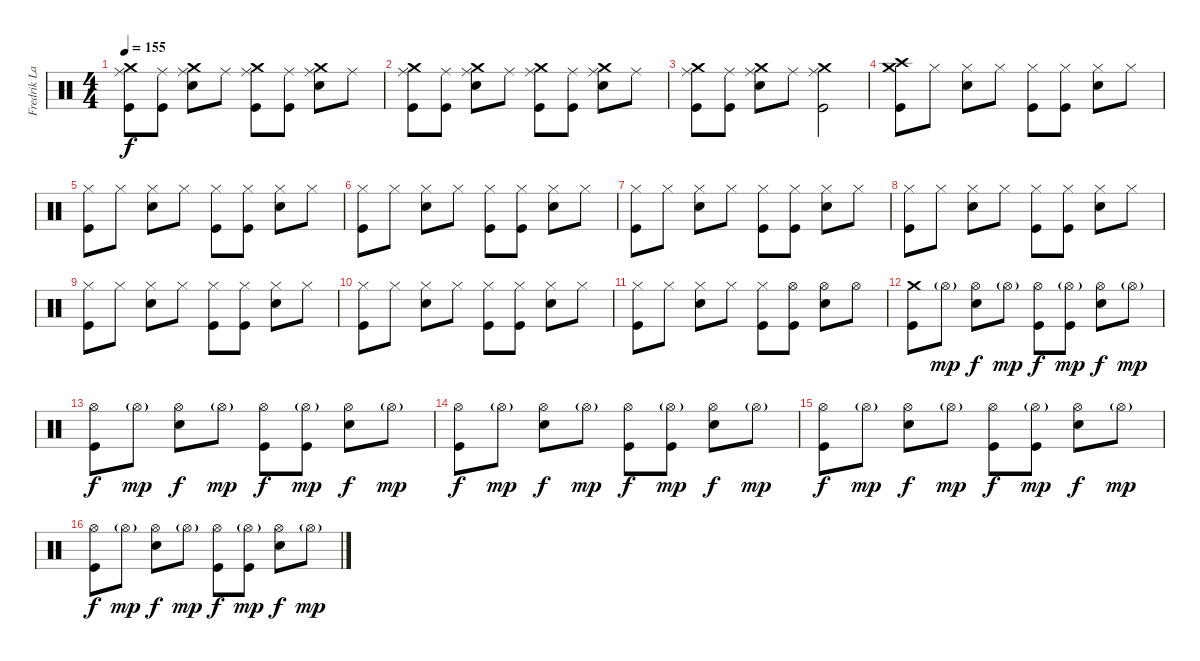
\track ("Fredrik Larzon Drums" "Fredrik La") {instrument percussion}
\staff {score}
\articulation defaults
\ts (4 4)
\tempo 155
\clef neutral
\ks c
("Ride (middle)" "Crash medium (hit)" "Kick (hit)").8{dy f} ("Ride (middle)" "Kick (hit)").8 ("Ride (middle)" "Crash medium (hit)" "Electric Snare (hit)").8 "Ride (middle)".8 ("Ride (middle)" "Crash medium (hit)" "Kick (hit)").8 ("Ride (middle)" "Kick (hit)").8 ("Ride (middle)" "Crash medium (hit)" "Electric Snare (hit)").8 "Ride (middle)".8 |
("Ride (middle)" "Crash medium (hit)" "Kick (hit)").8 ("Ride (middle)" "Kick (hit)").8 ("Ride (middle)" "Crash medium (hit)" "Electric Snare (hit)").8 "Ride (middle)".8 ("Ride (middle)" "Crash medium (hit)" "Kick (hit)").8 ("Ride (middle)" "Kick (hit)").8 ("Ride (middle)" "Crash medium (hit)" "Electric Snare (hit)").8 "Ride (middle)".8 |
("Ride (middle)" "Crash medium (hit)" "Kick (hit)").8 ("Ride (middle)" "Kick (hit)").8 ("Ride (middle)" "Crash medium (hit)" "Electric Snare (hit)").8 "Ride (middle)".8 ("Ride (middle)" "Crash medium (hit)" "Kick (hit)").2 |
("Crash high (hit)" "Crash medium (hit)" "Kick (hit)").8 "Hi-Hat (closed)".8 ("Hi-Hat (closed)" "Electric Snare (hit)").8 "Hi-Hat (closed)".8 ("Hi-Hat (closed)" "Kick (hit)").8 ("Hi-Hat (closed)" "Kick (hit)").8 ("Hi-Hat (closed)" "Electric Snare (hit)").8 "Hi-Hat (closed)".8 |
("Hi-Hat (closed)" "Kick (hit)").8 "Hi-Hat (closed)".8 ("Hi-Hat (closed)" "Electric Snare (hit)").8 "Hi-Hat (closed)".8 ("Hi-Hat (closed)" "Kick (hit)").8 ("Hi-Hat (closed)" "Kick (hit)").8 ("Hi-Hat (closed)" "Electric Snare (hit)").8 "Hi-Hat (closed)".8 |
("Hi-Hat (closed)" "Kick (hit)").8 "Hi-Hat (closed)".8 ("Hi-Hat (closed)" "Electric Snare (hit)").8 "Hi-Hat (closed)".8 ("Hi-Hat (closed)" "Kick (hit)").8 ("Hi-Hat (closed)" "Kick (hit)").8 ("Hi-Hat (closed)" "Electric Snare (hit)").8 "Hi-Hat (closed)".8 |
("Hi-Hat (closed)" "Kick (hit)").8 "Hi-Hat (closed)".8 ("Hi-Hat (closed)" "Electric Snare (hit)").8 "Hi-Hat (closed)".8 ("Hi-Hat (closed)" "Kick (hit)").8 ("Hi-Hat (closed)" "Kick (hit)").8 ("Hi-Hat (closed)" "Electric Snare (hit)").8 "Hi-Hat (closed)".8 |
("Hi-Hat (closed)" "Kick (hit)").8 "Hi-Hat (closed)".8 ("Hi-Hat (closed)" "Electric Snare (hit)").8 "Hi-Hat (closed)".8 ("Hi-Hat (closed)" "Kick (hit)").8 ("Hi-Hat (closed)" "Kick (hit)").8 ("Hi-Hat (closed)" "Electric Snare (hit)").8 "Hi-Hat (closed)".8 |
("Hi-Hat (closed)" "Kick (hit)").8 "Hi-Hat (closed)".8 ("Hi-Hat (closed)" "Electric Snare (hit)").8 "Hi-Hat (closed)".8 ("Hi-Hat (closed)" "Kick (hit)").8 ("Hi-Hat (closed)" "Kick (hit)").8 ("Hi-Hat (closed)" "Electric Snare (hit)").8 "Hi-Hat (closed)".8 |
("Hi-Hat (closed)" "Kick (hit)").8 "Hi-Hat (closed)".8 ("Hi-Hat (closed)" "Electric Snare (hit)").8 "Hi-Hat (closed)".8 ("Hi-Hat (closed)" "Kick (hit)").8 ("Hi-Hat (closed)" "Kick (hit)").8 ("Hi-Hat (closed)" "Electric Snare (hit)").8 "Hi-Hat (closed)".8 |
("Hi-Hat (closed)" "Kick (hit)").8 "Hi-Hat (closed)".8 ("Hi-Hat (closed)" "Electric Snare (hit)").8 "Hi-Hat (closed)".8 ("Hi-Hat (closed)" "Kick (hit)").8 ("Hi-Hat (open)" "Kick (hit)").8 ("Hi-Hat (open)" "Electric Snare (hit)").8 "Hi-Hat (open)".8 |
("Crash medium (hit)" "Kick (hit)").8 "Hi-Hat (open)"{g}.8{dy mp} ("Hi-Hat (open)" "Electric Snare (hit)").8{dy f} "Hi-Hat (open)"{g}.8{dy mp} ("Hi-Hat (open)" "Kick (hit)").8{dy f} ("Hi-Hat (open)"{g} "Kick (hit)").8{dy mp} ("Hi-Hat (open)" "Electric Snare (hit)").8{dy f} "Hi-Hat (open)"{g}.8{dy mp} |
("Hi-Hat (open)" "Kick (hit)").8{dy f} "Hi-Hat (open)"{g}.8{dy mp} ("Hi-Hat (open)" "Electric Snare (hit)").8{dy f} "Hi-Hat (open)"{g}.8{dy mp} ("Hi-Hat (open)" "Kick (hit)").8{dy f} ("Hi-Hat (open)"{g} "Kick (hit)").8{dy mp} ("Hi-Hat (open)" "Electric Snare (hit)").8{dy f} "Hi-Hat (open)"{g}.8{dy mp} |
("Hi-Hat (open)" "Kick (hit)").8{dy f} "Hi-Hat (open)"{g}.8{dy mp} ("Hi-Hat (open)" "Electric Snare (hit)").8{dy f} "Hi-Hat (open)"{g}.8{dy mp} ("Hi-Hat (open)" "Kick (hit)").8{dy f} ("Hi-Hat (open)"{g} "Kick (hit)").8{dy mp} ("Hi-Hat (open)" "Electric Snare (hit)").8{dy f} "Hi-Hat (open)"{g}.8{dy mp} |
("Hi-Hat (open)" "Kick (hit)").8{dy f} "Hi-Hat (open)"{g}.8{dy mp} ("Hi-Hat (open)" "Electric Snare (hit)").8{dy f} "Hi-Hat (open)"{g}.8{dy mp} ("Hi-Hat (open)" "Kick (hit)").8{dy f} ("Hi-Hat (open)"{g} "Kick (hit)").8{dy mp} ("Hi-Hat (open)" "Electric Snare (hit)").8{dy f} "Hi-Hat (open)"{g}.8{dy mp} |
("Hi-Hat (open)" "Kick (hit)").8{dy f} "Hi-Hat (open)"{g}.8{dy mp} ("Hi-Hat (open)" "Electric Snare (hit)").8{dy f} "Hi-Hat (open)"{g}.8{dy mp} ("Hi-Hat (open)" "Kick (hit)").8{dy f} ("Hi-Hat (open)"{g} "Kick (hit)").8{dy mp} ("Hi-Hat (open)" "Electric Snare (hit)").8{dy f} "Hi-Hat (open)"{g}.8{dy mp}
